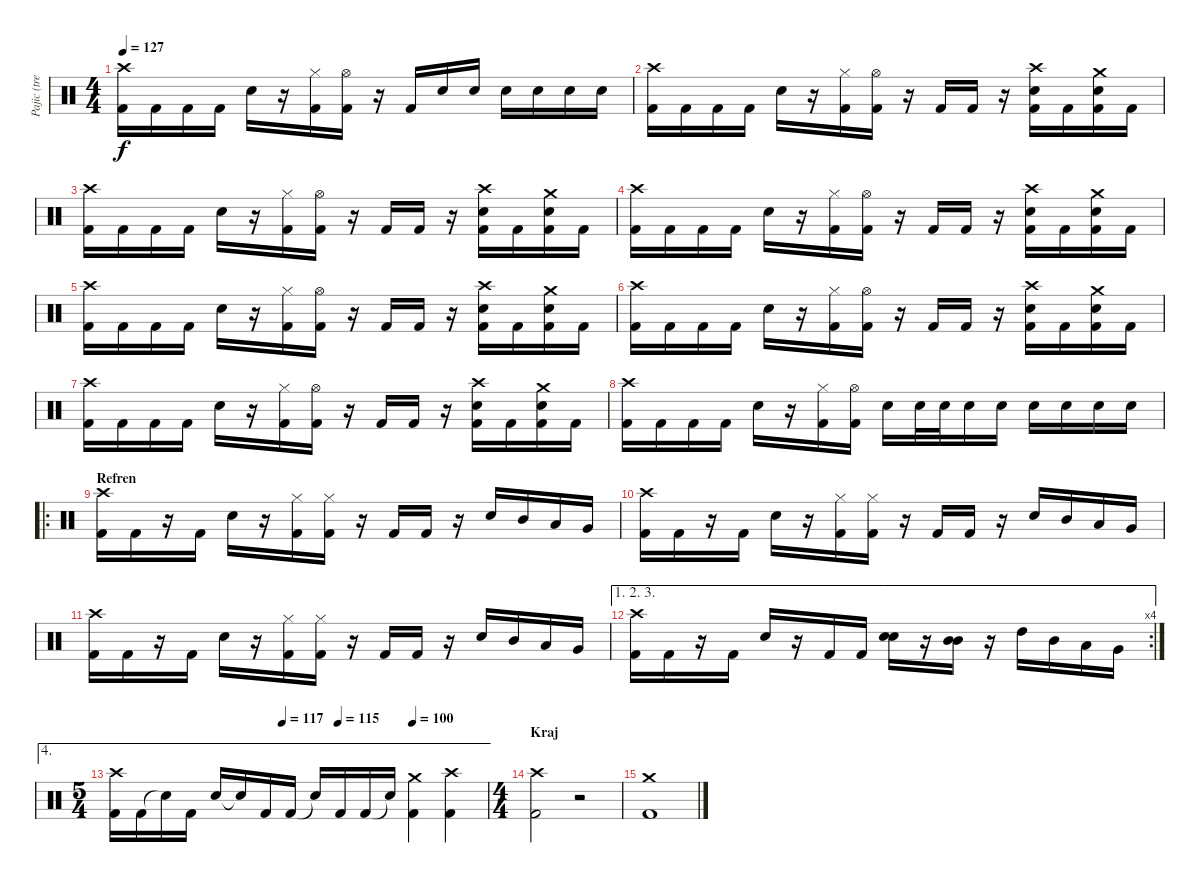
\track ("Pajic (trebao)" "Pajic (tre") {instrument percussion}
\staff {score}
\articulation defaults
\ts (4 4)
\tempo 127
\clef neutral
\ks c
("Crash high (hit)" "Kick (hit) 2").16{dy f} "Kick (hit) 2".16 "Kick (hit) 2".16 "Kick (hit) 2".16 "Electric Snare (hit)".16 r.16 ("Hi-Hat (closed)" "Kick (hit) 2").16 ("Hi-Hat (open)" "Kick (hit) 2").16 r.16 "Kick (hit) 2".16 "Electric Snare (hit)".16 "Electric Snare (hit)".16 "Electric Snare (hit)".16 "Electric Snare (hit)".16 "Electric Snare (hit)".16 "Electric Snare (hit)".16 |
("Crash high (hit)" "Kick (hit) 2").16 "Kick (hit) 2".16 "Kick (hit) 2".16 "Kick (hit) 2".16 "Electric Snare (hit)".16 r.16 ("Hi-Hat (closed)" "Kick (hit) 2").16 ("Hi-Hat (open)" "Kick (hit) 2").16 r.16 "Kick (hit) 2".16 "Kick (hit) 2".16 r.16 ("Crash high (hit)" "Kick (hit) 2" "Electric Snare (hit)").16 "Kick (hit) 2".16 ("Crash medium (hit)" "Kick (hit) 2" "Electric Snare (hit)").16 "Kick (hit) 2".16 |
("Crash high (hit)" "Kick (hit) 2").16 "Kick (hit) 2".16 "Kick (hit) 2".16 "Kick (hit) 2".16 "Electric Snare (hit)".16 r.16 ("Hi-Hat (closed)" "Kick (hit) 2").16 ("Hi-Hat (open)" "Kick (hit) 2").16 r.16 "Kick (hit) 2".16 "Kick (hit) 2".16 r.16 ("Crash high (hit)" "Kick (hit) 2" "Electric Snare (hit)").16 "Kick (hit) 2".16 ("Crash medium (hit)" "Kick (hit) 2" "Electric Snare (hit)").16 "Kick (hit) 2".16 |
("Crash high (hit)" "Kick (hit) 2").16 "Kick (hit) 2".16 "Kick (hit) 2".16 "Kick (hit) 2".16 "Electric Snare (hit)".16 r.16 ("Hi-Hat (closed)" "Kick (hit) 2").16 ("Hi-Hat (open)" "Kick (hit) 2").16 r.16 "Kick (hit) 2".16 "Kick (hit) 2".16 r.16 ("Crash high (hit)" "Kick (hit) 2" "Electric Snare (hit)").16 "Kick (hit) 2".16 ("Crash medium (hit)" "Kick (hit) 2" "Electric Snare (hit)").16 "Kick (hit) 2".16 |
("Crash high (hit)" "Kick (hit) 2").16 "Kick (hit) 2".16 "Kick (hit) 2".16 "Kick (hit) 2".16 "Electric Snare (hit)".16 r.16 ("Hi-Hat (closed)" "Kick (hit) 2").16 ("Hi-Hat (open)" "Kick (hit) 2").16 r.16 "Kick (hit) 2".16 "Kick (hit) 2".16 r.16 ("Crash high (hit)" "Kick (hit) 2" "Electric Snare (hit)").16 "Kick (hit) 2".16 ("Crash medium (hit)" "Kick (hit) 2" "Electric Snare (hit)").16 "Kick (hit) 2".16 |
("Crash high (hit)" "Kick (hit) 2").16 "Kick (hit) 2".16 "Kick (hit) 2".16 "Kick (hit) 2".16 "Electric Snare (hit)".16 r.16 ("Hi-Hat (closed)" "Kick (hit) 2").16 ("Hi-Hat (open)" "Kick (hit) 2").16 r.16 "Kick (hit) 2".16 "Kick (hit) 2".16 r.16 ("Crash high (hit)" "Kick (hit) 2" "Electric Snare (hit)").16 "Kick (hit) 2".16 ("Crash medium (hit)" "Kick (hit) 2" "Electric Snare (hit)").16 "Kick (hit) 2".16 |
("Crash high (hit)" "Kick (hit) 2").16 "Kick (hit) 2".16 "Kick (hit) 2".16 "Kick (hit) 2".16 "Electric Snare (hit)".16 r.16 ("Hi-Hat (closed)" "Kick (hit) 2").16 ("Hi-Hat (open)" "Kick (hit) 2").16 r.16 "Kick (hit) 2".16 "Kick (hit) 2".16 r.16 ("Crash high (hit)" "Kick (hit) 2" "Electric Snare (hit)").16 "Kick (hit) 2".16 ("Crash medium (hit)" "Kick (hit) 2" "Electric Snare (hit)").16 "Kick (hit) 2".16 |
("Crash high (hit)" "Kick (hit) 2").16 "Kick (hit) 2".16 "Kick (hit) 2".16 "Kick (hit) 2".16 "Electric Snare (hit)".16 r.16 ("Hi-Hat (closed)" "Kick (hit) 2").16 ("Hi-Hat (open)" "Kick (hit) 2").16 "Electric Snare (hit)".16 "Electric Snare (hit)".32 "Electric Snare (hit)".32 "Electric Snare (hit)".16 "Electric Snare (hit)".16 "Electric Snare (hit)".16 "Electric Snare (hit)".16 "Electric Snare (hit)".16 "Electric Snare (hit)".16 |
\ro
\section ("" "Refren")
("Crash high (hit)" "Kick (hit) 2").16 "Kick (hit) 2".16 r.16 "Kick (hit) 2".16 "Electric Snare (hit)".16 r.16 ("Hi-Hat (closed)" "Kick (hit) 2").16 ("Hi-Hat (closed)" "Kick (hit) 2").16 r.16 "Kick (hit) 2".16 "Kick (hit) 2".16 r.16 "Electric Snare (hit)".16 "Mid Tom (hit)".16 "Low Tom (hit)".16 "Very Low Tom (hit)".16 |
("Crash high (hit)" "Kick (hit) 2").16 "Kick (hit) 2".16 r.16 "Kick (hit) 2".16 "Electric Snare (hit)".16 r.16 ("Hi-Hat (closed)" "Kick (hit) 2").16 ("Hi-Hat (closed)" "Kick (hit) 2").16 r.16 "Kick (hit) 2".16 "Kick (hit) 2".16 r.16 "Electric Snare (hit)".16 "Mid Tom (hit)".16 "Low Tom (hit)".16 "Very Low Tom (hit)".16 |
("Crash high (hit)" "Kick (hit) 2").16 "Kick (hit) 2".16 r.16 "Kick (hit) 2".16 "Electric Snare (hit)".16 r.16 ("Hi-Hat (closed)" "Kick (hit) 2").16 ("Hi-Hat (closed)" "Kick (hit) 2").16 r.16 "Kick (hit) 2".16 "Kick (hit) 2".16 r.16 "Electric Snare (hit)".16 "Mid Tom (hit)".16 "Low Tom (hit)".16 "Very Low Tom (hit)".16 |
\ae (1 2 3)
\rc 4
("Crash high (hit)" "Kick (hit) 2").16 "Kick (hit) 2".16 r.16 "Kick (hit) 2".16 "Electric Snare (hit)".16 r.16 "Kick (hit) 2".16 "Kick (hit) 2".16 ("Electric Snare (hit)" "Electric Snare (hit)").16{bd 60} r.16 ("Mid Tom (hit)" "Mid Tom (hit)").16{bd 60} r.16 "High Tom (hit)".16 "Mid Tom (hit)".16 "Low Tom (hit)".16 "Very Low Tom (hit)".16 |
\ae 4
\ts (5 4)
\tempo (117 0.45)
\tempo (115 0.6)
\tempo (100 0.8)
("Crash high (hit)" "Kick (hit) 2").16 "Kick (hit) 2".16 "Snare (hit)"{t}.16 "Kick (hit) 2".16 "Electric Snare (hit)".16 "Snare (hit)"{t}.16 "Kick (hit) 2".16 "Kick (hit) 2".16 "Snare (hit)"{t}.16 "Kick (hit) 2".16 "Kick (hit) 2".16 "Snare (hit)"{t}.16 ("Crash medium (hit)" "Kick (hit) 2").4 ("Crash high (hit)" "Kick (hit) 2").4 |
\ts (4 4)
\section ("" "Kraj")
("Crash high (hit)" "Kick (hit) 2").2 r.2 |
("Crash medium (hit)" "Kick (hit) 2").1
